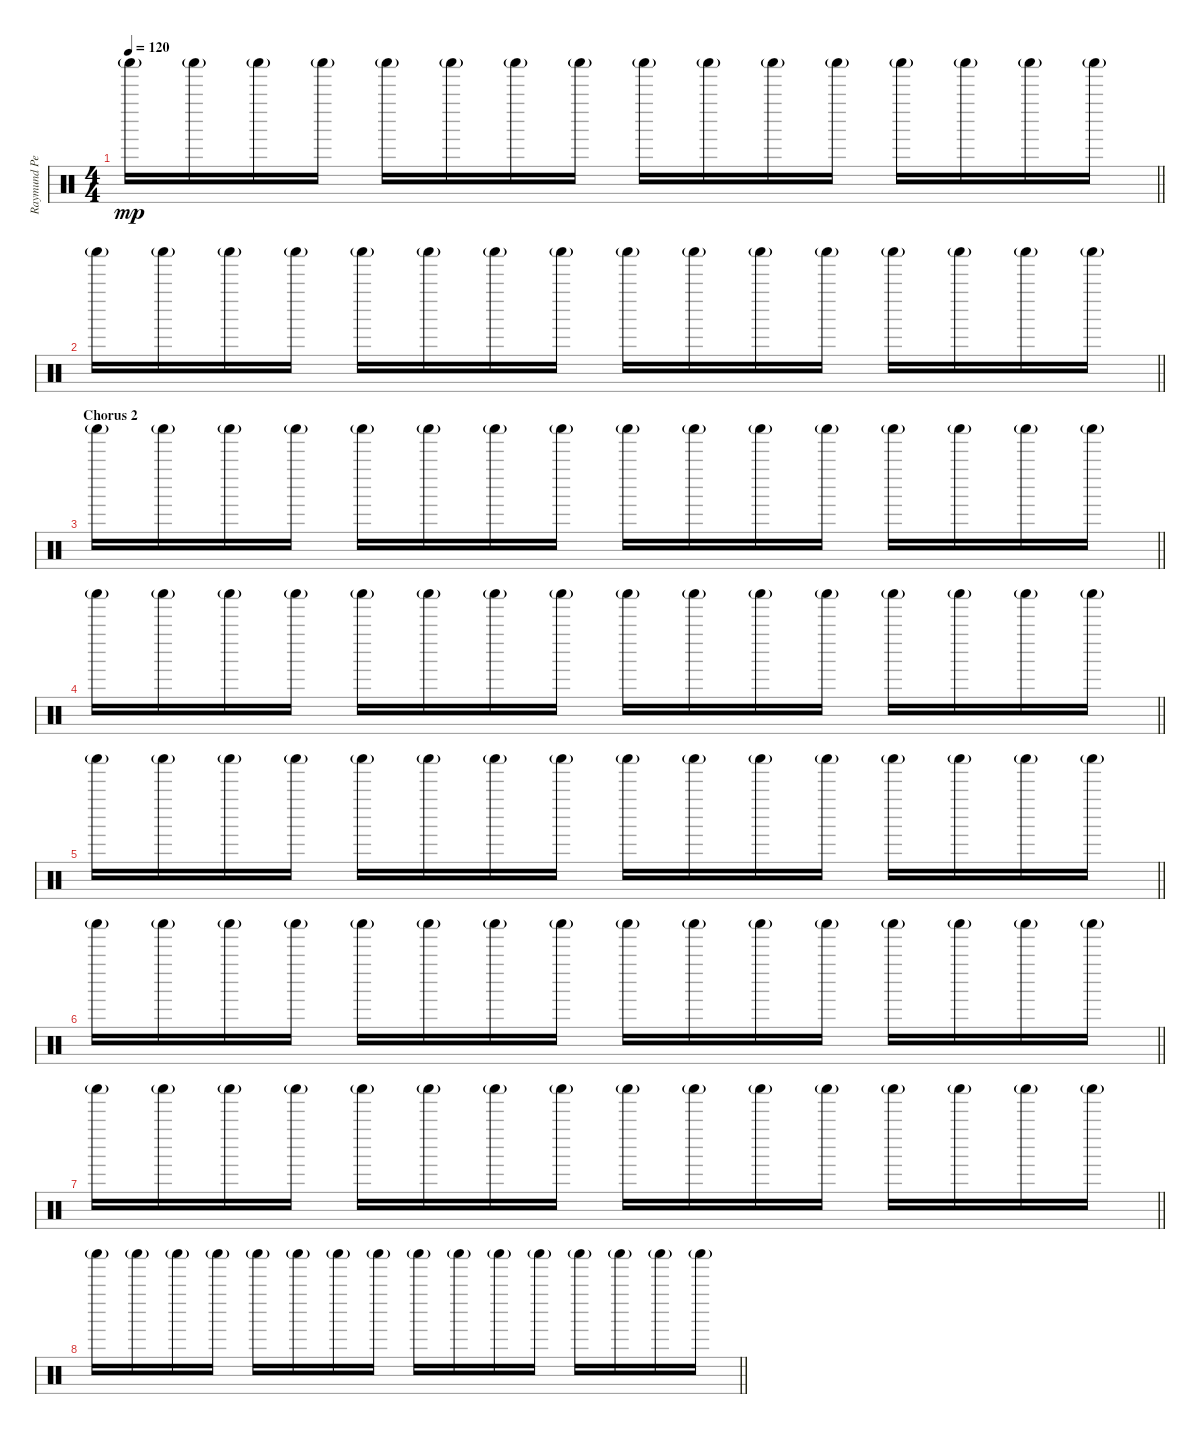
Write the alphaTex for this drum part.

\track ("Raymund Percussion" "Raymund Pe") {instrument percussion}
\staff {score}
\articulation defaults
\ts (4 4)
\tempo 120
\clef neutral
\barLineRight lightlight
\ks c "Shaker (hit)"{g}.16{dy mp} "Shaker (hit)"{g}.16 "Shaker (hit)"{g}.16 "Shaker (hit)"{g}.16 "Shaker (hit)"{g}.16 "Shaker (hit)"{g}.16 "Shaker (hit)"{g}.16 "Shaker (hit)"{g}.16 "Shaker (hit)"{g}.16 "Shaker (hit)"{g}.16 "Shaker (hit)"{g}.16 "Shaker (hit)"{g}.16 "Shaker (hit)"{g}.16 "Shaker (hit)"{g}.16 "Shaker (hit)"{g}.16 "Shaker (hit)"{g}.16
|
\barLineRight lightlight "Shaker (hit)"{g}.16 "Shaker (hit)"{g}.16 "Shaker (hit)"{g}.16 "Shaker (hit)"{g}.16 "Shaker (hit)"{g}.16 "Shaker (hit)"{g}.16 "Shaker (hit)"{g}.16 "Shaker (hit)"{g}.16 "Shaker (hit)"{g}.16 "Shaker (hit)"{g}.16 "Shaker (hit)"{g}.16 "Shaker (hit)"{g}.16 "Shaker (hit)"{g}.16 "Shaker (hit)"{g}.16 "Shaker (hit)"{g}.16 "Shaker (hit)"{g}.16
|
\section ("" "Chorus 2")
\barLineRight lightlight "Shaker (hit)"{g}.16 "Shaker (hit)"{g}.16 "Shaker (hit)"{g}.16 "Shaker (hit)"{g}.16 "Shaker (hit)"{g}.16 "Shaker (hit)"{g}.16 "Shaker (hit)"{g}.16 "Shaker (hit)"{g}.16 "Shaker (hit)"{g}.16 "Shaker (hit)"{g}.16 "Shaker (hit)"{g}.16 "Shaker (hit)"{g}.16 "Shaker (hit)"{g}.16 "Shaker (hit)"{g}.16 "Shaker (hit)"{g}.16 "Shaker (hit)"{g}.16
|
\barLineRight lightlight "Shaker (hit)"{g}.16 "Shaker (hit)"{g}.16 "Shaker (hit)"{g}.16 "Shaker (hit)"{g}.16 "Shaker (hit)"{g}.16 "Shaker (hit)"{g}.16 "Shaker (hit)"{g}.16 "Shaker (hit)"{g}.16 "Shaker (hit)"{g}.16 "Shaker (hit)"{g}.16 "Shaker (hit)"{g}.16 "Shaker (hit)"{g}.16 "Shaker (hit)"{g}.16 "Shaker (hit)"{g}.16 "Shaker (hit)"{g}.16 "Shaker (hit)"{g}.16
|
\barLineRight lightlight "Shaker (hit)"{g}.16 "Shaker (hit)"{g}.16 "Shaker (hit)"{g}.16 "Shaker (hit)"{g}.16 "Shaker (hit)"{g}.16 "Shaker (hit)"{g}.16 "Shaker (hit)"{g}.16 "Shaker (hit)"{g}.16 "Shaker (hit)"{g}.16 "Shaker (hit)"{g}.16 "Shaker (hit)"{g}.16 "Shaker (hit)"{g}.16 "Shaker (hit)"{g}.16 "Shaker (hit)"{g}.16 "Shaker (hit)"{g}.16 "Shaker (hit)"{g}.16
|
\barLineRight lightlight "Shaker (hit)"{g}.16 "Shaker (hit)"{g}.16 "Shaker (hit)"{g}.16 "Shaker (hit)"{g}.16 "Shaker (hit)"{g}.16 "Shaker (hit)"{g}.16 "Shaker (hit)"{g}.16 "Shaker (hit)"{g}.16 "Shaker (hit)"{g}.16 "Shaker (hit)"{g}.16 "Shaker (hit)"{g}.16 "Shaker (hit)"{g}.16 "Shaker (hit)"{g}.16 "Shaker (hit)"{g}.16 "Shaker (hit)"{g}.16 "Shaker (hit)"{g}.16
|
\barLineRight lightlight "Shaker (hit)"{g}.16 "Shaker (hit)"{g}.16 "Shaker (hit)"{g}.16 "Shaker (hit)"{g}.16 "Shaker (hit)"{g}.16 "Shaker (hit)"{g}.16 "Shaker (hit)"{g}.16 "Shaker (hit)"{g}.16 "Shaker (hit)"{g}.16 "Shaker (hit)"{g}.16 "Shaker (hit)"{g}.16 "Shaker (hit)"{g}.16 "Shaker (hit)"{g}.16 "Shaker (hit)"{g}.16 "Shaker (hit)"{g}.16 "Shaker (hit)"{g}.16
|
\barLineRight lightlight "Shaker (hit)"{g}.16 "Shaker (hit)"{g}.16 "Shaker (hit)"{g}.16 "Shaker (hit)"{g}.16 "Shaker (hit)"{g}.16 "Shaker (hit)"{g}.16 "Shaker (hit)"{g}.16 "Shaker (hit)"{g}.16 "Shaker (hit)"{g}.16 "Shaker (hit)"{g}.16 "Shaker (hit)"{g}.16 "Shaker (hit)"{g}.16 "Shaker (hit)"{g}.16 "Shaker (hit)"{g}.16 "Shaker (hit)"{g}.16 "Shaker (hit)"{g}.16
